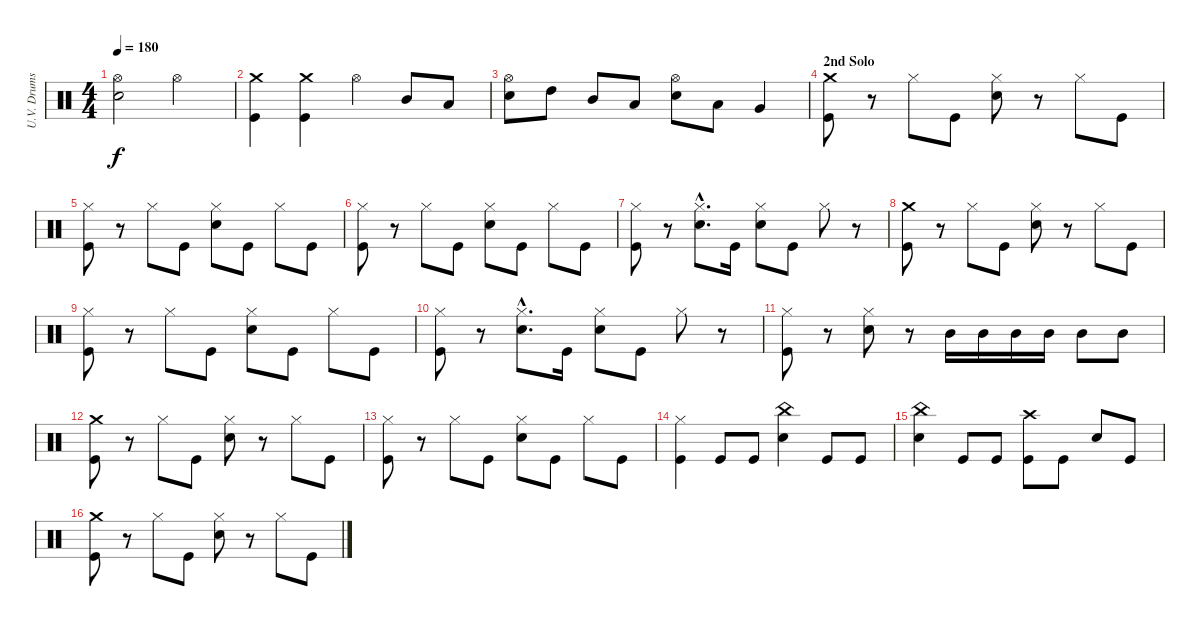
\track ("U.V. Drums" "U.V. Drums") {instrument percussion}
\staff {score}
\articulation defaults
\ts (4 4)
\tempo 180
\clef neutral
\ks c
("Hi-Hat (open)" "Electric Snare (hit)").2{dy f} "Hi-Hat (open)".2 |
("Crash medium (hit)" "Kick (hit)").4 ("Crash medium (hit)" "Kick (hit)").4 "Hi-Hat (open)".4 "Mid Tom (hit)".8 "Low Tom (hit)".8 |
("Hi-Hat (open)" "Electric Snare (hit)").8 "High Tom (hit)".8 "Mid Tom (hit)".8 "Low Tom (hit)".8 ("Hi-Hat (open)" "Electric Snare (hit)").8 "Low Tom (hit)".8 "Very Low Tom (hit)".4 |
\section ("" "2nd Solo")
("Crash medium (hit)" "Kick (hit)").8 r.8 "Hi-Hat (closed)".8 "Kick (hit)".8 ("Hi-Hat (closed)" "Electric Snare (hit)").8 r.8 "Hi-Hat (closed)".8 "Kick (hit)".8 |
("Hi-Hat (closed)" "Kick (hit)").8 r.8 "Hi-Hat (closed)".8 "Kick (hit)".8 ("Hi-Hat (closed)" "Electric Snare (hit)").8 "Kick (hit)".8 "Hi-Hat (closed)".8 "Kick (hit)".8 |
("Hi-Hat (closed)" "Kick (hit)").8 r.8 "Hi-Hat (closed)".8 "Kick (hit)".8 ("Hi-Hat (closed)" "Electric Snare (hit)").8 "Kick (hit)".8 "Hi-Hat (closed)".8 "Kick (hit)".8 |
("Hi-Hat (closed)" "Kick (hit)").8 r.8 ("Hi-Hat (closed)"{hac} "Electric Snare (hit)"{hac}).8{d} "Kick (hit)".16 ("Hi-Hat (closed)" "Electric Snare (hit)").8 "Kick (hit)".8 "Hi-Hat (closed)".8 r.8 |
("Crash medium (hit)" "Kick (hit)").8 r.8 "Hi-Hat (closed)".8 "Kick (hit)".8 ("Hi-Hat (closed)" "Electric Snare (hit)").8 r.8 "Hi-Hat (closed)".8 "Kick (hit)".8 |
("Hi-Hat (closed)" "Kick (hit)").8 r.8 "Hi-Hat (closed)".8 "Kick (hit)".8 ("Hi-Hat (closed)" "Electric Snare (hit)").8 "Kick (hit)".8 "Hi-Hat (closed)".8 "Kick (hit)".8 |
("Hi-Hat (closed)" "Kick (hit)").8 r.8 ("Hi-Hat (closed)"{hac} "Electric Snare (hit)"{hac}).8{d} "Kick (hit)".16 ("Hi-Hat (closed)" "Electric Snare (hit)").8 "Kick (hit)".8 "Hi-Hat (closed)".8 r.8 |
("Hi-Hat (closed)" "Kick (hit)").8 r.8 ("Hi-Hat (closed)" "Electric Snare (hit)").8 r.8 "Mid Tom (hit)".16 "Mid Tom (hit)".16 "Mid Tom (hit)".16 "Mid Tom (hit)".16 "Mid Tom (hit)".8 "Mid Tom (hit)".8 |
("Crash medium (hit)" "Kick (hit)").8 r.8 "Hi-Hat (closed)".8 "Kick (hit)".8 ("Hi-Hat (closed)" "Electric Snare (hit)").8 r.8 "Hi-Hat (closed)".8 "Kick (hit)".8 |
("Hi-Hat (closed)" "Kick (hit)").8 r.8 "Hi-Hat (closed)".8 "Kick (hit)".8 ("Hi-Hat (closed)" "Electric Snare (hit)").8 "Kick (hit)".8 "Hi-Hat (closed)".8 "Kick (hit)".8 |
("Hi-Hat (closed)" "Kick (hit)").4 "Kick (hit)".8 "Kick (hit)".8 ("China (hit)" "Electric Snare (hit)").4 "Kick (hit)".8 "Kick (hit)".8 |
("China (hit)" "Electric Snare (hit)").4 "Kick (hit)".8 "Kick (hit)".8 ("Crash high (hit)" "Kick (hit)").8 "Kick (hit)".8 "Electric Snare (hit)".8 "Kick (hit)".8 |
("Crash medium (hit)" "Kick (hit)").8 r.8 "Hi-Hat (closed)".8 "Kick (hit)".8 ("Hi-Hat (closed)" "Electric Snare (hit)").8 r.8 "Hi-Hat (closed)".8 "Kick (hit)".8
